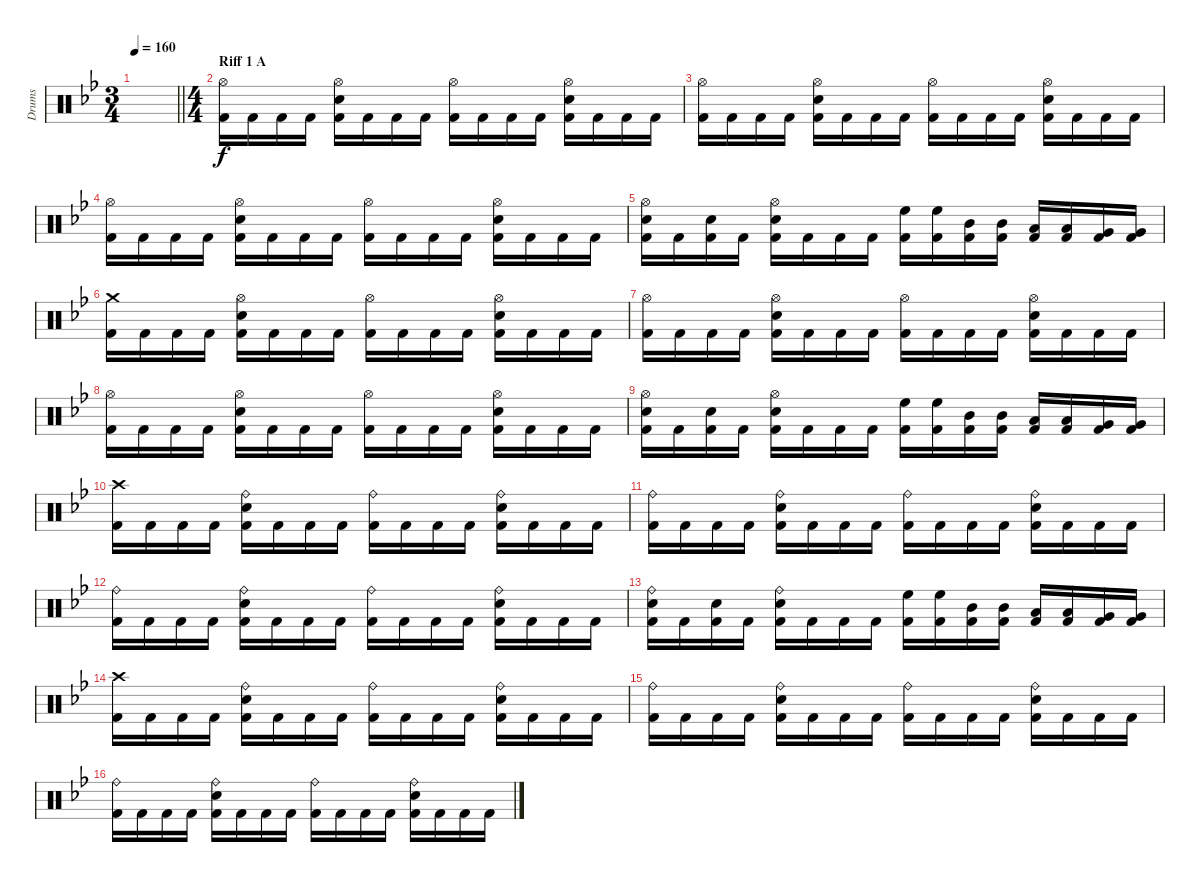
\track ("Drums" "Drums") {instrument percussion}
\staff {score}
\articulation defaults
\ts (3 4)
\tempo 160
\clef neutral
\barLineRight lightlight
\ks bb
|
\ts (4 4)
\section ("" "Riff 1 A")
("Hi-Hat (open)" "Kick (hit) 2").16 "Kick (hit) 2".16 "Kick (hit) 2".16 "Kick (hit) 2".16 ("Hi-Hat (open)" "Electric Snare (hit)" "Kick (hit) 2").16 "Kick (hit) 2".16 "Kick (hit) 2".16 "Kick (hit) 2".16 ("Hi-Hat (open)" "Kick (hit) 2").16 "Kick (hit) 2".16 "Kick (hit) 2".16 "Kick (hit) 2".16 ("Hi-Hat (open)" "Electric Snare (hit)" "Kick (hit) 2").16 "Kick (hit) 2".16 "Kick (hit) 2".16 "Kick (hit) 2".16 |
("Hi-Hat (open)" "Kick (hit) 2").16 "Kick (hit) 2".16 "Kick (hit) 2".16 "Kick (hit) 2".16 ("Hi-Hat (open)" "Electric Snare (hit)" "Kick (hit) 2").16 "Kick (hit) 2".16 "Kick (hit) 2".16 "Kick (hit) 2".16 ("Hi-Hat (open)" "Kick (hit) 2").16 "Kick (hit) 2".16 "Kick (hit) 2".16 "Kick (hit) 2".16 ("Hi-Hat (open)" "Electric Snare (hit)" "Kick (hit) 2").16 "Kick (hit) 2".16 "Kick (hit) 2".16 "Kick (hit) 2".16 |
("Hi-Hat (open)" "Kick (hit) 2").16 "Kick (hit) 2".16 "Kick (hit) 2".16 "Kick (hit) 2".16 ("Hi-Hat (open)" "Electric Snare (hit)" "Kick (hit) 2").16 "Kick (hit) 2".16 "Kick (hit) 2".16 "Kick (hit) 2".16 ("Hi-Hat (open)" "Kick (hit) 2").16 "Kick (hit) 2".16 "Kick (hit) 2".16 "Kick (hit) 2".16 ("Hi-Hat (open)" "Electric Snare (hit)" "Kick (hit) 2").16 "Kick (hit) 2".16 "Kick (hit) 2".16 "Kick (hit) 2".16 |
("Hi-Hat (open)" "Electric Snare (hit)" "Kick (hit) 2").16 "Kick (hit) 2".16 ("Electric Snare (hit)" "Kick (hit) 2").16 "Kick (hit) 2".16 ("Hi-Hat (open)" "Electric Snare (hit)" "Kick (hit) 2").16 "Kick (hit) 2".16 "Kick (hit) 2".16 "Kick (hit) 2".16 ("High Floor Tom (hit)" "Kick (hit) 2").16 ("High Floor Tom (hit)" "Kick (hit) 2").16 ("Mid Tom (hit)" "Kick (hit) 2").16 ("Mid Tom (hit)" "Kick (hit) 2").16 ("Low Tom (hit)" "Kick (hit) 2").16 ("Low Tom (hit)" "Kick (hit) 2").16 ("Very Low Tom (hit)" "Kick (hit) 2").16 ("Very Low Tom (hit)" "Kick (hit) 2").16 |
("Crash medium (hit)" "Kick (hit) 2").16 "Kick (hit) 2".16 "Kick (hit) 2".16 "Kick (hit) 2".16 ("Hi-Hat (open)" "Electric Snare (hit)" "Kick (hit) 2").16 "Kick (hit) 2".16 "Kick (hit) 2".16 "Kick (hit) 2".16 ("Hi-Hat (open)" "Kick (hit) 2").16 "Kick (hit) 2".16 "Kick (hit) 2".16 "Kick (hit) 2".16 ("Hi-Hat (open)" "Electric Snare (hit)" "Kick (hit) 2").16 "Kick (hit) 2".16 "Kick (hit) 2".16 "Kick (hit) 2".16 |
("Hi-Hat (open)" "Kick (hit) 2").16 "Kick (hit) 2".16 "Kick (hit) 2".16 "Kick (hit) 2".16 ("Hi-Hat (open)" "Electric Snare (hit)" "Kick (hit) 2").16 "Kick (hit) 2".16 "Kick (hit) 2".16 "Kick (hit) 2".16 ("Hi-Hat (open)" "Kick (hit) 2").16 "Kick (hit) 2".16 "Kick (hit) 2".16 "Kick (hit) 2".16 ("Hi-Hat (open)" "Electric Snare (hit)" "Kick (hit) 2").16 "Kick (hit) 2".16 "Kick (hit) 2".16 "Kick (hit) 2".16 |
("Hi-Hat (open)" "Kick (hit) 2").16 "Kick (hit) 2".16 "Kick (hit) 2".16 "Kick (hit) 2".16 ("Hi-Hat (open)" "Electric Snare (hit)" "Kick (hit) 2").16 "Kick (hit) 2".16 "Kick (hit) 2".16 "Kick (hit) 2".16 ("Hi-Hat (open)" "Kick (hit) 2").16 "Kick (hit) 2".16 "Kick (hit) 2".16 "Kick (hit) 2".16 ("Hi-Hat (open)" "Electric Snare (hit)" "Kick (hit) 2").16 "Kick (hit) 2".16 "Kick (hit) 2".16 "Kick (hit) 2".16 |
("Hi-Hat (open)" "Electric Snare (hit)" "Kick (hit) 2").16 "Kick (hit) 2".16 ("Electric Snare (hit)" "Kick (hit) 2").16 "Kick (hit) 2".16 ("Hi-Hat (open)" "Electric Snare (hit)" "Kick (hit) 2").16 "Kick (hit) 2".16 "Kick (hit) 2".16 "Kick (hit) 2".16 ("High Floor Tom (hit)" "Kick (hit) 2").16 ("High Floor Tom (hit)" "Kick (hit) 2").16 ("Mid Tom (hit)" "Kick (hit) 2").16 ("Mid Tom (hit)" "Kick (hit) 2").16 ("Low Tom (hit)" "Kick (hit) 2").16 ("Low Tom (hit)" "Kick (hit) 2").16 ("Very Low Tom (hit)" "Kick (hit) 2").16 ("Very Low Tom (hit)" "Kick (hit) 2").16 |
("Crash high (hit)" "Kick (hit) 2").16 "Kick (hit) 2".16 "Kick (hit) 2".16 "Kick (hit) 2".16 ("Ride (bell)" "Electric Snare (hit)" "Kick (hit) 2").16 "Kick (hit) 2".16 "Kick (hit) 2".16 "Kick (hit) 2".16 ("Ride (bell)" "Kick (hit) 2").16 "Kick (hit) 2".16 "Kick (hit) 2".16 "Kick (hit) 2".16 ("Ride (bell)" "Electric Snare (hit)" "Kick (hit) 2").16 "Kick (hit) 2".16 "Kick (hit) 2".16 "Kick (hit) 2".16 |
("Ride (bell)" "Kick (hit) 2").16 "Kick (hit) 2".16 "Kick (hit) 2".16 "Kick (hit) 2".16 ("Ride (bell)" "Electric Snare (hit)" "Kick (hit) 2").16 "Kick (hit) 2".16 "Kick (hit) 2".16 "Kick (hit) 2".16 ("Ride (bell)" "Kick (hit) 2").16 "Kick (hit) 2".16 "Kick (hit) 2".16 "Kick (hit) 2".16 ("Ride (bell)" "Electric Snare (hit)" "Kick (hit) 2").16 "Kick (hit) 2".16 "Kick (hit) 2".16 "Kick (hit) 2".16 |
("Ride (bell)" "Kick (hit) 2").16 "Kick (hit) 2".16 "Kick (hit) 2".16 "Kick (hit) 2".16 ("Ride (bell)" "Electric Snare (hit)" "Kick (hit) 2").16 "Kick (hit) 2".16 "Kick (hit) 2".16 "Kick (hit) 2".16 ("Ride (bell)" "Kick (hit) 2").16 "Kick (hit) 2".16 "Kick (hit) 2".16 "Kick (hit) 2".16 ("Ride (bell)" "Electric Snare (hit)" "Kick (hit) 2").16 "Kick (hit) 2".16 "Kick (hit) 2".16 "Kick (hit) 2".16 |
("Ride (bell)" "Electric Snare (hit)" "Kick (hit) 2").16 "Kick (hit) 2".16 ("Electric Snare (hit)" "Kick (hit) 2").16 "Kick (hit) 2".16 ("Ride (bell)" "Electric Snare (hit)" "Kick (hit) 2").16 "Kick (hit) 2".16 "Kick (hit) 2".16 "Kick (hit) 2".16 ("High Floor Tom (hit)" "Kick (hit) 2").16 ("High Floor Tom (hit)" "Kick (hit) 2").16 ("Mid Tom (hit)" "Kick (hit) 2").16 ("Mid Tom (hit)" "Kick (hit) 2").16 ("Low Tom (hit)" "Kick (hit) 2").16 ("Low Tom (hit)" "Kick (hit) 2").16 ("Very Low Tom (hit)" "Kick (hit) 2").16 ("Very Low Tom (hit)" "Kick (hit) 2").16 |
("Crash high (hit)" "Kick (hit) 2").16 "Kick (hit) 2".16 "Kick (hit) 2".16 "Kick (hit) 2".16 ("Ride (bell)" "Electric Snare (hit)" "Kick (hit) 2").16 "Kick (hit) 2".16 "Kick (hit) 2".16 "Kick (hit) 2".16 ("Ride (bell)" "Kick (hit) 2").16 "Kick (hit) 2".16 "Kick (hit) 2".16 "Kick (hit) 2".16 ("Ride (bell)" "Electric Snare (hit)" "Kick (hit) 2").16 "Kick (hit) 2".16 "Kick (hit) 2".16 "Kick (hit) 2".16 |
("Ride (bell)" "Kick (hit) 2").16 "Kick (hit) 2".16 "Kick (hit) 2".16 "Kick (hit) 2".16 ("Ride (bell)" "Electric Snare (hit)" "Kick (hit) 2").16 "Kick (hit) 2".16 "Kick (hit) 2".16 "Kick (hit) 2".16 ("Ride (bell)" "Kick (hit) 2").16 "Kick (hit) 2".16 "Kick (hit) 2".16 "Kick (hit) 2".16 ("Ride (bell)" "Electric Snare (hit)" "Kick (hit) 2").16 "Kick (hit) 2".16 "Kick (hit) 2".16 "Kick (hit) 2".16 |
("Ride (bell)" "Kick (hit) 2").16 "Kick (hit) 2".16 "Kick (hit) 2".16 "Kick (hit) 2".16 ("Ride (bell)" "Electric Snare (hit)" "Kick (hit) 2").16 "Kick (hit) 2".16 "Kick (hit) 2".16 "Kick (hit) 2".16 ("Ride (bell)" "Kick (hit) 2").16 "Kick (hit) 2".16 "Kick (hit) 2".16 "Kick (hit) 2".16 ("Ride (bell)" "Electric Snare (hit)" "Kick (hit) 2").16 "Kick (hit) 2".16 "Kick (hit) 2".16 "Kick (hit) 2".16
